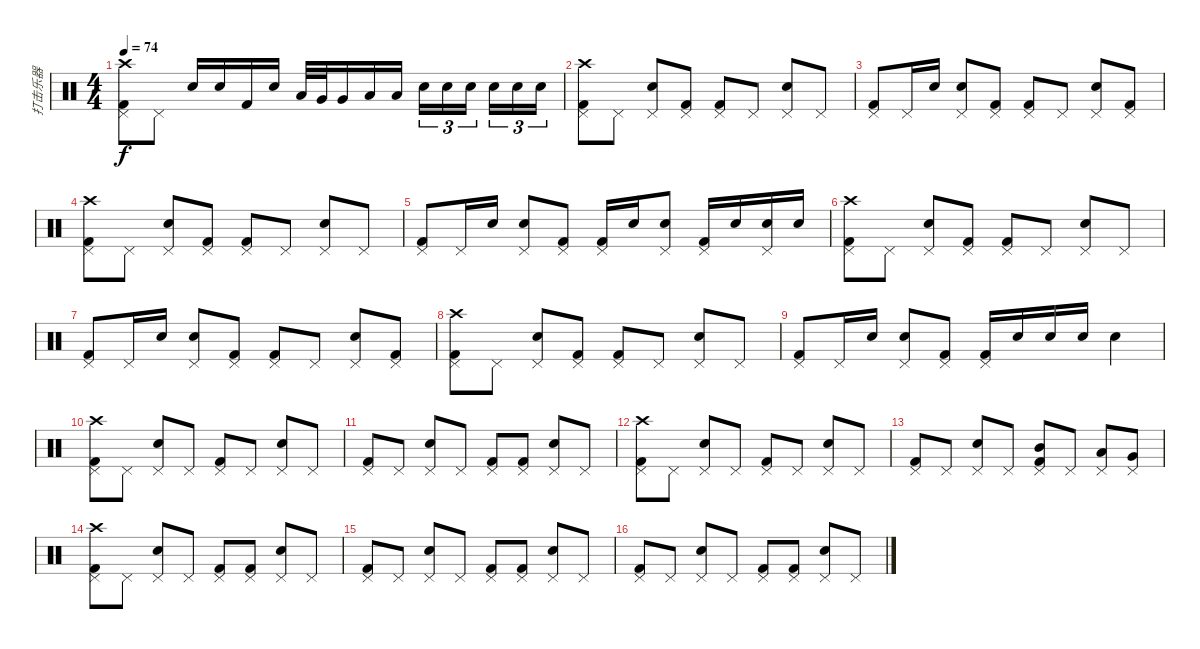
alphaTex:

\track ("打击乐器" "打击乐器") {instrument percussion}
\staff {score}
\articulation defaults
\ts (4 4)
\tempo 74
\clef neutral
\ks c
("Pedal Hi-Hat (hit)" "Kick (hit) 2" "Crash high (hit)").8{dy f} "Pedal Hi-Hat (hit)".8 "Electric Snare (hit)".16 "Electric Snare (hit)".16 "Kick (hit) 2".16 "Electric Snare (hit)".16 "Low Tom (hit)".32 "Very Low Tom (hit)".32 "Very Low Tom (hit)".16 "Low Floor Tom (hit)".16 "Low Floor Tom (hit)".16 "Electric Snare (hit)".16{tu (3 2)} "Electric Snare (hit)".16{tu (3 2)} "Electric Snare (hit)".16{tu (3 2)} "Electric Snare (hit)".16{tu (3 2)} "Electric Snare (hit)".16{tu (3 2)} "Electric Snare (hit)".16{tu (3 2)} |
("Pedal Hi-Hat (hit)" "Kick (hit) 2" "Crash high (hit)").8 "Pedal Hi-Hat (hit)".8 ("Pedal Hi-Hat (hit)" "Electric Snare (hit)").8 ("Pedal Hi-Hat (hit)" "Kick (hit) 2").8 ("Pedal Hi-Hat (hit)" "Kick (hit) 2").8 "Pedal Hi-Hat (hit)".8 ("Pedal Hi-Hat (hit)" "Electric Snare (hit)").8 "Pedal Hi-Hat (hit)".8 |
("Pedal Hi-Hat (hit)" "Kick (hit) 2").8 "Pedal Hi-Hat (hit)".16 "Electric Snare (hit)".16 ("Pedal Hi-Hat (hit)" "Electric Snare (hit)").8 ("Pedal Hi-Hat (hit)" "Kick (hit) 2").8 ("Pedal Hi-Hat (hit)" "Kick (hit) 2").8 "Pedal Hi-Hat (hit)".8 ("Pedal Hi-Hat (hit)" "Electric Snare (hit)").8 ("Pedal Hi-Hat (hit)" "Kick (hit) 2").8 |
("Pedal Hi-Hat (hit)" "Kick (hit) 2" "Crash high (hit)").8 "Pedal Hi-Hat (hit)".8 ("Pedal Hi-Hat (hit)" "Electric Snare (hit)").8 ("Pedal Hi-Hat (hit)" "Kick (hit) 2").8 ("Pedal Hi-Hat (hit)" "Kick (hit) 2").8 "Pedal Hi-Hat (hit)".8 ("Pedal Hi-Hat (hit)" "Electric Snare (hit)").8 "Pedal Hi-Hat (hit)".8 |
("Pedal Hi-Hat (hit)" "Kick (hit) 2").8 "Pedal Hi-Hat (hit)".16 "Electric Snare (hit)".16 ("Pedal Hi-Hat (hit)" "Electric Snare (hit)").8 ("Pedal Hi-Hat (hit)" "Kick (hit) 2").8 ("Pedal Hi-Hat (hit)" "Kick (hit) 2").16 "Electric Snare (hit)".16 ("Pedal Hi-Hat (hit)" "Electric Snare (hit)").8 ("Pedal Hi-Hat (hit)" "Kick (hit) 2").16 "Electric Snare (hit)".16 ("Pedal Hi-Hat (hit)" "Electric Snare (hit)").16 "Electric Snare (hit)".16 |
("Pedal Hi-Hat (hit)" "Kick (hit) 2" "Crash high (hit)").8 "Pedal Hi-Hat (hit)".8 ("Pedal Hi-Hat (hit)" "Electric Snare (hit)").8 ("Pedal Hi-Hat (hit)" "Kick (hit) 2").8 ("Pedal Hi-Hat (hit)" "Kick (hit) 2").8 "Pedal Hi-Hat (hit)".8 ("Pedal Hi-Hat (hit)" "Electric Snare (hit)").8 "Pedal Hi-Hat (hit)".8 |
("Pedal Hi-Hat (hit)" "Kick (hit) 2").8 "Pedal Hi-Hat (hit)".16 "Electric Snare (hit)".16 ("Pedal Hi-Hat (hit)" "Electric Snare (hit)").8 ("Pedal Hi-Hat (hit)" "Kick (hit) 2").8 ("Pedal Hi-Hat (hit)" "Kick (hit) 2").8 "Pedal Hi-Hat (hit)".8 ("Pedal Hi-Hat (hit)" "Electric Snare (hit)").8 ("Pedal Hi-Hat (hit)" "Kick (hit) 2").8 |
("Pedal Hi-Hat (hit)" "Kick (hit) 2" "Crash high (hit)").8 "Pedal Hi-Hat (hit)".8 ("Pedal Hi-Hat (hit)" "Electric Snare (hit)").8 ("Pedal Hi-Hat (hit)" "Kick (hit) 2").8 ("Pedal Hi-Hat (hit)" "Kick (hit) 2").8 "Pedal Hi-Hat (hit)".8 ("Pedal Hi-Hat (hit)" "Electric Snare (hit)").8 "Pedal Hi-Hat (hit)".8 |
("Pedal Hi-Hat (hit)" "Kick (hit) 2").8 "Pedal Hi-Hat (hit)".16 "Electric Snare (hit)".16 ("Pedal Hi-Hat (hit)" "Electric Snare (hit)").8 ("Pedal Hi-Hat (hit)" "Kick (hit) 2").8 ("Pedal Hi-Hat (hit)" "Kick (hit) 2").16 "Electric Snare (hit)".16 "Electric Snare (hit)".16 "Electric Snare (hit)".16 "Electric Snare (hit)".4 |
("Pedal Hi-Hat (hit)" "Kick (hit) 2" "Crash high (hit)").8 "Pedal Hi-Hat (hit)".8 ("Pedal Hi-Hat (hit)" "Electric Snare (hit)").8 "Pedal Hi-Hat (hit)".8 ("Pedal Hi-Hat (hit)" "Kick (hit) 2").8 "Pedal Hi-Hat (hit)".8 ("Pedal Hi-Hat (hit)" "Electric Snare (hit)").8 "Pedal Hi-Hat (hit)".8 |
("Pedal Hi-Hat (hit)" "Kick (hit) 2").8 "Pedal Hi-Hat (hit)".8 ("Pedal Hi-Hat (hit)" "Electric Snare (hit)").8 "Pedal Hi-Hat (hit)".8 ("Pedal Hi-Hat (hit)" "Kick (hit) 2").8 ("Pedal Hi-Hat (hit)" "Kick (hit) 2").8 ("Pedal Hi-Hat (hit)" "Electric Snare (hit)").8 "Pedal Hi-Hat (hit)".8 |
("Pedal Hi-Hat (hit)" "Kick (hit) 2" "Crash high (hit)").8 "Pedal Hi-Hat (hit)".8 ("Pedal Hi-Hat (hit)" "Electric Snare (hit)").8 "Pedal Hi-Hat (hit)".8 ("Pedal Hi-Hat (hit)" "Kick (hit) 2").8 "Pedal Hi-Hat (hit)".8 ("Pedal Hi-Hat (hit)" "Electric Snare (hit)").8 "Pedal Hi-Hat (hit)".8 |
("Pedal Hi-Hat (hit)" "Kick (hit) 2").8 "Pedal Hi-Hat (hit)".8 ("Pedal Hi-Hat (hit)" "Electric Snare (hit)").8 "Pedal Hi-Hat (hit)".8 ("Pedal Hi-Hat (hit)" "Kick (hit) 2" "Mid Tom (hit)").8 "Pedal Hi-Hat (hit)".8 ("Pedal Hi-Hat (hit)" "Low Tom (hit)").8 ("Pedal Hi-Hat (hit)" "Very Low Tom (hit)").8 |
("Pedal Hi-Hat (hit)" "Kick (hit) 2" "Crash high (hit)").8 "Pedal Hi-Hat (hit)".8 ("Pedal Hi-Hat (hit)" "Electric Snare (hit)").8 "Pedal Hi-Hat (hit)".8 ("Pedal Hi-Hat (hit)" "Kick (hit) 2").8 ("Pedal Hi-Hat (hit)" "Kick (hit) 2").8 ("Pedal Hi-Hat (hit)" "Electric Snare (hit)").8 "Pedal Hi-Hat (hit)".8 |
("Pedal Hi-Hat (hit)" "Kick (hit) 2").8 "Pedal Hi-Hat (hit)".8 ("Pedal Hi-Hat (hit)" "Electric Snare (hit)").8 "Pedal Hi-Hat (hit)".8 ("Pedal Hi-Hat (hit)" "Kick (hit) 2").8 ("Pedal Hi-Hat (hit)" "Kick (hit) 2").8 ("Pedal Hi-Hat (hit)" "Electric Snare (hit)").8 "Pedal Hi-Hat (hit)".8 |
("Pedal Hi-Hat (hit)" "Kick (hit) 2").8 "Pedal Hi-Hat (hit)".8 ("Pedal Hi-Hat (hit)" "Electric Snare (hit)").8 "Pedal Hi-Hat (hit)".8 ("Pedal Hi-Hat (hit)" "Kick (hit) 2").8 ("Pedal Hi-Hat (hit)" "Kick (hit) 2").8 ("Pedal Hi-Hat (hit)" "Electric Snare (hit)").8 "Pedal Hi-Hat (hit)".8
